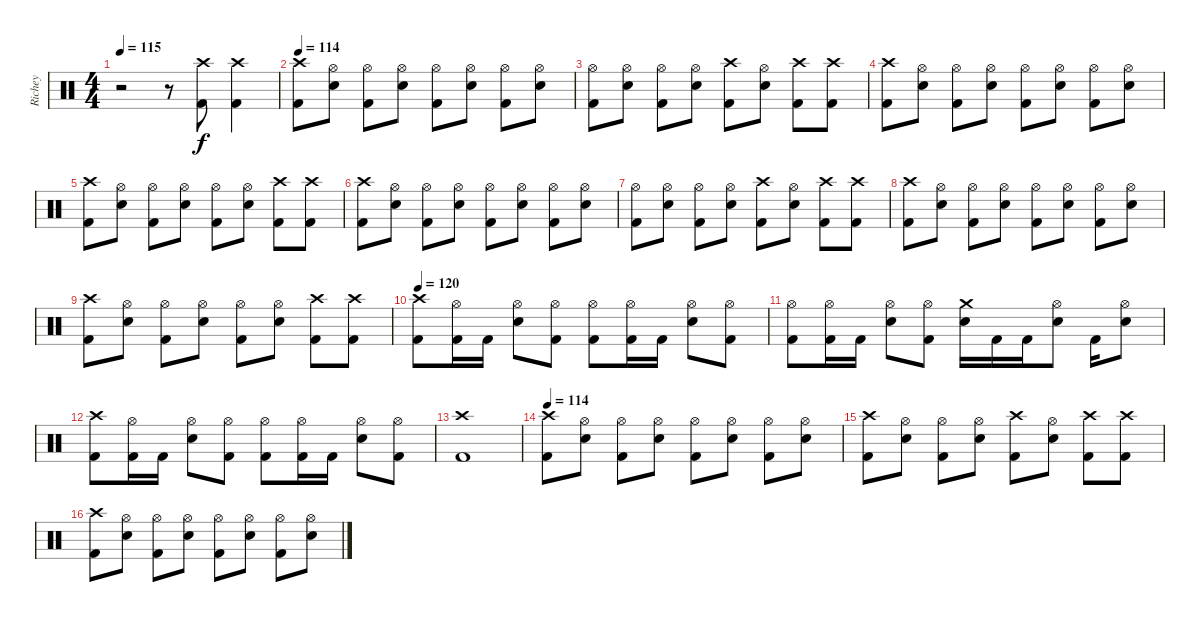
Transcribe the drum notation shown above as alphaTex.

\track ("Richey" "Richey") {instrument percussion}
\staff {score}
\articulation defaults
\ts (4 4)
\tempo 115
\clef neutral
\ks c
r.2{dy f} r.8 ("Crash high (hit)" "Kick (hit) 2").8 ("Crash high (hit)" "Kick (hit) 2").4 |
\tempo 114
("Crash high (hit)" "Kick (hit) 2").8 ("Hi-Hat (open)" "Snare (hit) 2").8 ("Hi-Hat (open)" "Kick (hit) 2").8 ("Hi-Hat (open)" "Snare (hit) 2").8 ("Hi-Hat (open)" "Kick (hit) 2").8 ("Hi-Hat (open)" "Snare (hit) 2").8 ("Hi-Hat (open)" "Kick (hit) 2").8 ("Hi-Hat (open)" "Snare (hit) 2").8 |
("Hi-Hat (open)" "Kick (hit) 2").8 ("Hi-Hat (open)" "Snare (hit) 2").8 ("Hi-Hat (open)" "Kick (hit) 2").8 ("Hi-Hat (open)" "Snare (hit) 2").8 ("Crash high (hit)" "Kick (hit) 2").8 ("Hi-Hat (open)" "Snare (hit) 2").8 ("Crash high (hit)" "Kick (hit) 2").8 ("Crash high (hit)" "Kick (hit) 2").8 |
("Crash high (hit)" "Kick (hit) 2").8 ("Hi-Hat (open)" "Snare (hit) 2").8 ("Hi-Hat (open)" "Kick (hit) 2").8 ("Hi-Hat (open)" "Snare (hit) 2").8 ("Hi-Hat (open)" "Kick (hit) 2").8 ("Hi-Hat (open)" "Snare (hit) 2").8 ("Hi-Hat (open)" "Kick (hit) 2").8 ("Hi-Hat (open)" "Snare (hit) 2").8 |
("Crash high (hit)" "Kick (hit) 2").8 ("Hi-Hat (open)" "Snare (hit) 2").8 ("Hi-Hat (open)" "Kick (hit) 2").8 ("Hi-Hat (open)" "Snare (hit) 2").8 ("Hi-Hat (open)" "Kick (hit) 2").8 ("Hi-Hat (open)" "Snare (hit) 2").8 ("Crash high (hit)" "Kick (hit) 2").8 ("Crash high (hit)" "Kick (hit) 2").8 |
("Crash high (hit)" "Kick (hit) 2").8 ("Hi-Hat (open)" "Snare (hit) 2").8 ("Hi-Hat (open)" "Kick (hit) 2").8 ("Hi-Hat (open)" "Snare (hit) 2").8 ("Hi-Hat (open)" "Kick (hit) 2").8 ("Hi-Hat (open)" "Snare (hit) 2").8 ("Hi-Hat (open)" "Kick (hit) 2").8 ("Hi-Hat (open)" "Snare (hit) 2").8 |
("Hi-Hat (open)" "Kick (hit) 2").8 ("Hi-Hat (open)" "Snare (hit) 2").8 ("Hi-Hat (open)" "Kick (hit) 2").8 ("Hi-Hat (open)" "Snare (hit) 2").8 ("Crash high (hit)" "Kick (hit) 2").8 ("Hi-Hat (open)" "Snare (hit) 2").8 ("Crash high (hit)" "Kick (hit) 2").8 ("Crash high (hit)" "Kick (hit) 2").8 |
("Crash high (hit)" "Kick (hit) 2").8 ("Hi-Hat (open)" "Snare (hit) 2").8 ("Hi-Hat (open)" "Kick (hit) 2").8 ("Hi-Hat (open)" "Snare (hit) 2").8 ("Hi-Hat (open)" "Kick (hit) 2").8 ("Hi-Hat (open)" "Snare (hit) 2").8 ("Hi-Hat (open)" "Kick (hit) 2").8 ("Hi-Hat (open)" "Snare (hit) 2").8 |
("Crash high (hit)" "Kick (hit) 2").8 ("Hi-Hat (open)" "Snare (hit) 2").8 ("Hi-Hat (open)" "Kick (hit) 2").8 ("Hi-Hat (open)" "Snare (hit) 2").8 ("Hi-Hat (open)" "Kick (hit) 2").8 ("Hi-Hat (open)" "Snare (hit) 2").8 ("Crash high (hit)" "Kick (hit) 2").8 ("Crash high (hit)" "Kick (hit) 2").8 |
\tempo 120
("Crash high (hit)" "Kick (hit) 2").8 ("Hi-Hat (open)" "Kick (hit) 2").16 "Kick (hit) 2".16 ("Hi-Hat (open)" "Snare (hit) 2").8 ("Hi-Hat (open)" "Kick (hit) 2").8 ("Hi-Hat (open)" "Kick (hit) 2").8 ("Hi-Hat (open)" "Kick (hit) 2").16 "Kick (hit) 2".16 ("Hi-Hat (open)" "Snare (hit) 2").8 ("Hi-Hat (open)" "Kick (hit) 2").8 |
("Hi-Hat (open)" "Kick (hit) 2").8 ("Hi-Hat (open)" "Kick (hit) 2").16 "Kick (hit) 2".16 ("Hi-Hat (open)" "Snare (hit) 2").8 ("Hi-Hat (open)" "Kick (hit) 2").8 ("Crash medium (hit)" "Snare (hit) 2").16 "Kick (hit) 2".16 "Kick (hit) 2".16 ("Hi-Hat (open)" "Snare (hit) 2").8 "Kick (hit) 2".16 ("Hi-Hat (open)" "Snare (hit) 2").8 |
("Crash high (hit)" "Kick (hit) 2").8 ("Hi-Hat (open)" "Kick (hit) 2").16 "Kick (hit) 2".16 ("Hi-Hat (open)" "Snare (hit) 2").8 ("Hi-Hat (open)" "Kick (hit) 2").8 ("Hi-Hat (open)" "Kick (hit) 2").8 ("Hi-Hat (open)" "Kick (hit) 2").16 "Kick (hit) 2".16 ("Hi-Hat (open)" "Snare (hit) 2").8 ("Hi-Hat (open)" "Kick (hit) 2").8 |
("Crash high (hit)" "Kick (hit) 2").1 |
\tempo 114
("Crash high (hit)" "Kick (hit) 2").8 ("Hi-Hat (open)" "Snare (hit) 2").8 ("Hi-Hat (open)" "Kick (hit) 2").8 ("Hi-Hat (open)" "Snare (hit) 2").8 ("Hi-Hat (open)" "Kick (hit) 2").8 ("Hi-Hat (open)" "Snare (hit) 2").8 ("Hi-Hat (open)" "Kick (hit) 2").8 ("Hi-Hat (open)" "Snare (hit) 2").8 |
("Crash high (hit)" "Kick (hit) 2").8 ("Hi-Hat (open)" "Snare (hit) 2").8 ("Hi-Hat (open)" "Kick (hit) 2").8 ("Hi-Hat (open)" "Snare (hit) 2").8 ("Crash high (hit)" "Kick (hit) 2").8 ("Hi-Hat (open)" "Snare (hit) 2").8 ("Crash high (hit)" "Kick (hit) 2").8 ("Crash high (hit)" "Kick (hit) 2").8 |
("Crash high (hit)" "Kick (hit) 2").8 ("Hi-Hat (open)" "Snare (hit) 2").8 ("Hi-Hat (open)" "Kick (hit) 2").8 ("Hi-Hat (open)" "Snare (hit) 2").8 ("Hi-Hat (open)" "Kick (hit) 2").8 ("Hi-Hat (open)" "Snare (hit) 2").8 ("Hi-Hat (open)" "Kick (hit) 2").8 ("Hi-Hat (open)" "Snare (hit) 2").8
